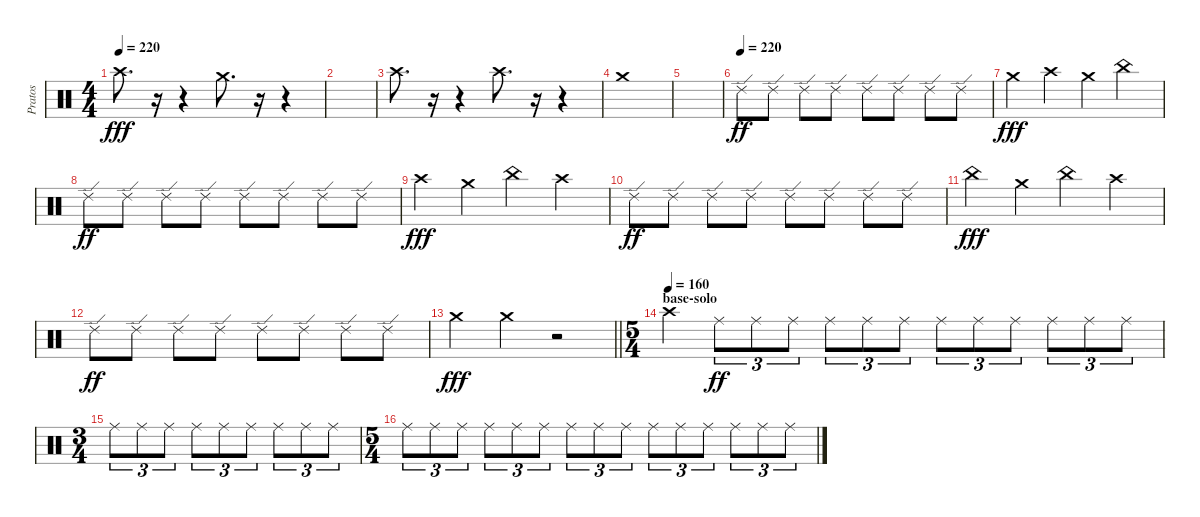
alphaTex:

\track ("Pratos" "Pratos") {instrument percussion}
\staff {score}
\articulation defaults
\ts (4 4)
\tempo 220
\clef neutral
\ks c "Crash high (hit)".8{d dy fff}
r.16 r.4 "Crash medium (hit)".8{d} r.16 r.4 |
|
"Crash high (hit)".8{d} r.16 r.4 "Crash high (hit)".8{d} r.16 r.4 |
"Crash medium (hit)".1 |
|
\tempo (220)
"Ride (edge) 2".8{dy ff} "Ride (edge) 2".8 "Ride (edge) 2".8 "Ride (edge) 2".8 "Ride (edge) 2".8 "Ride (edge) 2".8 "Ride (edge) 2".8 "Ride (edge) 2".8 |
"Crash medium (hit)".4{dy fff} "Crash high (hit)".4 "Crash medium (hit)".4 "China (hit)".4 |
"Ride (edge) 2".8{dy ff} "Ride (edge) 2".8 "Ride (edge) 2".8 "Ride (edge) 2".8 "Ride (edge) 2".8 "Ride (edge) 2".8 "Ride (edge) 2".8 "Ride (edge) 2".8 |
"Crash high (hit)".4{dy fff} "Crash medium (hit)".4 "China (hit)".4 "Crash high (hit)".4 |
"Ride (edge) 2".8{dy ff} "Ride (edge) 2".8 "Ride (edge) 2".8 "Ride (edge) 2".8 "Ride (edge) 2".8 "Ride (edge) 2".8 "Ride (edge) 2".8 "Ride (edge) 2".8 |
"China (hit)".4{dy fff} "Crash medium (hit)".4 "China (hit)".4 "Crash high (hit)".4 |
"Ride (edge) 2".8{dy ff} "Ride (edge) 2".8 "Ride (edge) 2".8 "Ride (edge) 2".8 "Ride (edge) 2".8 "Ride (edge) 2".8 "Ride (edge) 2".8 "Ride (edge) 2".8 |
\barLineRight lightlight "Crash medium (hit)".4{dy fff} "Crash medium (hit)".4
r.2 |
\ts (5 4)
\section ("" "base-solo")
\tempo (160)
"Crash high (hit)".4 "Ride (middle)".8{tu (3 2) dy ff} "Ride (middle)".8{tu (3 2)} "Ride (middle)".8{tu (3 2)} "Ride (middle)".8{tu (3 2)} "Ride (middle)".8{tu (3 2)} "Ride (middle)".8{tu (3 2)} "Ride (middle)".8{tu (3 2)} "Ride (middle)".8{tu (3 2)} "Ride (middle)".8{tu (3 2)} "Ride (middle)".8{tu (3 2)} "Ride (middle)".8{tu (3 2)} "Ride (middle)".8{tu (3 2)} |
\ts (3 4)
"Ride (middle)".8{tu (3 2)} "Ride (middle)".8{tu (3 2)} "Ride (middle)".8{tu (3 2)} "Ride (middle)".8{tu (3 2)} "Ride (middle)".8{tu (3 2)} "Ride (middle)".8{tu (3 2)} "Ride (middle)".8{tu (3 2)} "Ride (middle)".8{tu (3 2)} "Ride (middle)".8{tu (3 2)} |
\ts (5 4)
"Ride (middle)".8{tu (3 2)} "Ride (middle)".8{tu (3 2)} "Ride (middle)".8{tu (3 2)} "Ride (middle)".8{tu (3 2)} "Ride (middle)".8{tu (3 2)} "Ride (middle)".8{tu (3 2)} "Ride (middle)".8{tu (3 2)} "Ride (middle)".8{tu (3 2)} "Ride (middle)".8{tu (3 2)} "Ride (middle)".8{tu (3 2)} "Ride (middle)".8{tu (3 2)} "Ride (middle)".8{tu (3 2)} "Ride (middle)".8{tu (3 2)} "Ride (middle)".8{tu (3 2)} "Ride (middle)".8{tu (3 2)}
